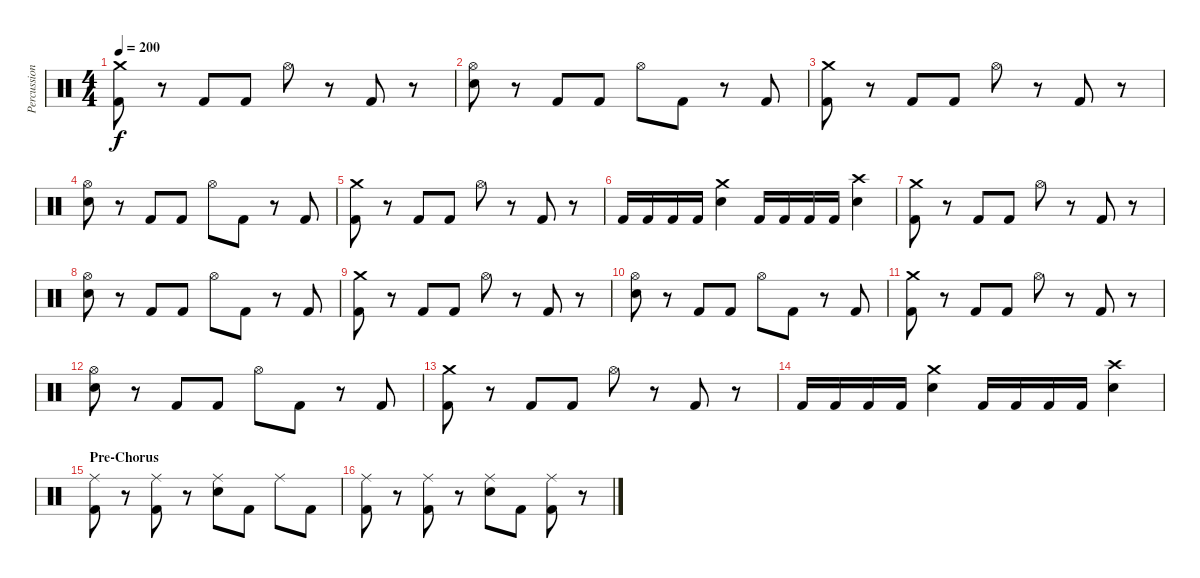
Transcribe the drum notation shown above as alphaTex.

\track ("Percussions" "Percussion") {instrument percussion}
\staff {score}
\articulation defaults
\ts (4 4)
\tempo 200
\clef neutral
\ks c
("Crash medium (hit)" "Kick (hit) 2").8{dy f} r.8 "Kick (hit) 2".8 "Kick (hit) 2".8 "Hi-Hat (open)".8 r.8 "Kick (hit) 2".8 r.8 |
("Hi-Hat (open)" "Electric Snare (hit)").8 r.8 "Kick (hit) 2".8 "Kick (hit) 2".8 "Hi-Hat (open)".8 "Kick (hit) 2".8 r.8 "Kick (hit) 2".8 |
("Crash medium (hit)" "Kick (hit) 2").8 r.8 "Kick (hit) 2".8 "Kick (hit) 2".8 "Hi-Hat (open)".8 r.8 "Kick (hit) 2".8 r.8 |
("Hi-Hat (open)" "Electric Snare (hit)").8 r.8 "Kick (hit) 2".8 "Kick (hit) 2".8 "Hi-Hat (open)".8 "Kick (hit) 2".8 r.8 "Kick (hit) 2".8 |
("Crash medium (hit)" "Kick (hit) 2").8 r.8 "Kick (hit) 2".8 "Kick (hit) 2".8 "Hi-Hat (open)".8 r.8 "Kick (hit) 2".8 r.8 |
"Kick (hit) 2".16 "Kick (hit) 2".16 "Kick (hit) 2".16 "Kick (hit) 2".16 ("Crash medium (hit)" "Electric Snare (hit)").4 "Kick (hit) 2".16 "Kick (hit) 2".16 "Kick (hit) 2".16 "Kick (hit) 2".16 ("Crash high (hit)" "Electric Snare (hit)").4 |
("Crash medium (hit)" "Kick (hit) 2").8 r.8 "Kick (hit) 2".8 "Kick (hit) 2".8 "Hi-Hat (open)".8 r.8 "Kick (hit) 2".8 r.8 |
("Hi-Hat (open)" "Electric Snare (hit)").8 r.8 "Kick (hit) 2".8 "Kick (hit) 2".8 "Hi-Hat (open)".8 "Kick (hit) 2".8 r.8 "Kick (hit) 2".8 |
("Crash medium (hit)" "Kick (hit) 2").8 r.8 "Kick (hit) 2".8 "Kick (hit) 2".8 "Hi-Hat (open)".8 r.8 "Kick (hit) 2".8 r.8 |
("Hi-Hat (open)" "Electric Snare (hit)").8 r.8 "Kick (hit) 2".8 "Kick (hit) 2".8 "Hi-Hat (open)".8 "Kick (hit) 2".8 r.8 "Kick (hit) 2".8 |
("Crash medium (hit)" "Kick (hit) 2").8 r.8 "Kick (hit) 2".8 "Kick (hit) 2".8 "Hi-Hat (open)".8 r.8 "Kick (hit) 2".8 r.8 |
("Hi-Hat (open)" "Electric Snare (hit)").8 r.8 "Kick (hit) 2".8 "Kick (hit) 2".8 "Hi-Hat (open)".8 "Kick (hit) 2".8 r.8 "Kick (hit) 2".8 |
("Crash medium (hit)" "Kick (hit) 2").8 r.8 "Kick (hit) 2".8 "Kick (hit) 2".8 "Hi-Hat (open)".8 r.8 "Kick (hit) 2".8 r.8 |
"Kick (hit) 2".16 "Kick (hit) 2".16 "Kick (hit) 2".16 "Kick (hit) 2".16 ("Crash medium (hit)" "Electric Snare (hit)").4 "Kick (hit) 2".16 "Kick (hit) 2".16 "Kick (hit) 2".16 "Kick (hit) 2".16 ("Crash high (hit)" "Electric Snare (hit)").4 |
\section ("" "Pre-Chorus")
("Ride (middle)" "Kick (hit) 2").8 r.8 ("Ride (middle)" "Kick (hit) 2").8 r.8 ("Ride (middle)" "Electric Snare (hit)").8 "Kick (hit) 2".8 "Ride (middle)".8 "Kick (hit) 2".8 |
("Ride (middle)" "Kick (hit) 2").8 r.8 ("Ride (middle)" "Kick (hit) 2").8 r.8 ("Ride (middle)" "Electric Snare (hit)").8 "Kick (hit) 2".8 ("Ride (middle)" "Kick (hit) 2").8 r.8
